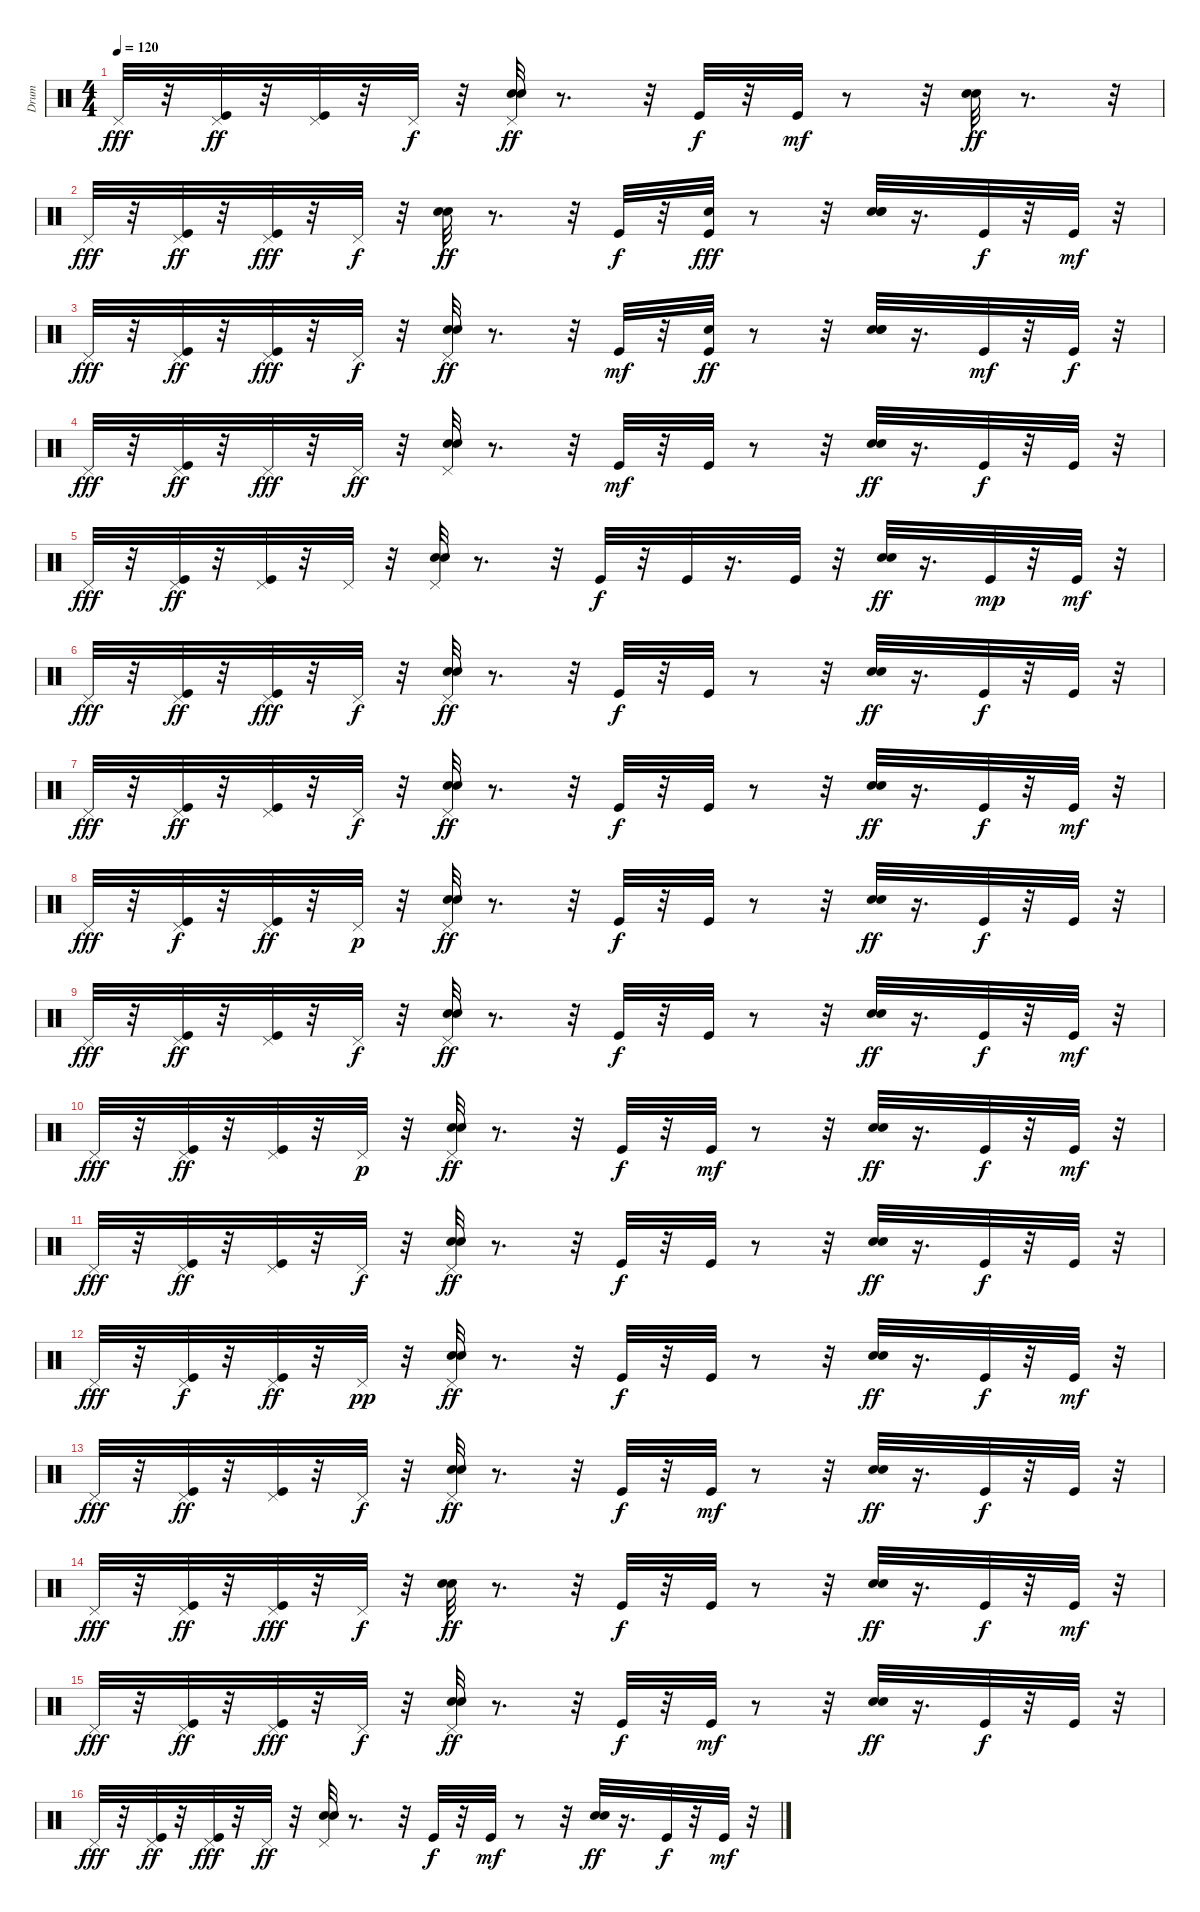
\track ("Drum" "Drum") {instrument percussion}
\staff {score}
\articulation defaults
\ts (4 4)
\tempo 120
\clef neutral
\ks c "Pedal Hi-Hat (hit)".32{dy fff}
r.32 ("Kick (hit)" "Pedal Hi-Hat (hit)").32{dy ff} r.32 ("Kick (hit)" "Pedal Hi-Hat (hit)").32 r.32 "Pedal Hi-Hat (hit)".32{dy f} r.32 ("Snare (hit) 2" "Electric Snare (hit)" "Pedal Hi-Hat (hit)").32{dy ff} r.8{d} r.32 "Kick (hit)".32{dy f} r.32 "Kick (hit)".32{dy mf} r.8 r.32 ("Snare (hit) 2" "Electric Snare (hit)").32{dy ff} r.8{d} r.32 |
"Pedal Hi-Hat (hit)".32{dy fff} r.32 ("Kick (hit)" "Pedal Hi-Hat (hit)").32{dy ff} r.32 ("Kick (hit)" "Pedal Hi-Hat (hit)").32{dy fff} r.32 "Pedal Hi-Hat (hit)".32{dy f} r.32 ("Electric Snare (hit)" "Snare (hit) 2").32{dy ff} r.8{d} r.32 "Kick (hit)".32{dy f} r.32 ("Kick (hit)" "Hand Clap (hit)").32{dy fff} r.8 r.32 ("Electric Snare (hit)" "Snare (hit) 2" "Hand Clap (hit)").32 r.16{d} "Kick (hit)".32{dy f} r.32 "Kick (hit)".32{dy mf} r.32 |
"Pedal Hi-Hat (hit)".32{dy fff} r.32 ("Kick (hit)" "Pedal Hi-Hat (hit)").32{dy ff} r.32 ("Kick (hit)" "Pedal Hi-Hat (hit)").32{dy fff} r.32 "Pedal Hi-Hat (hit)".32{dy f} r.32 ("Electric Snare (hit)" "Snare (hit) 2" "Pedal Hi-Hat (hit)").32{dy ff} r.8{d} r.32 "Kick (hit)".32{dy mf} r.32 ("Hand Clap (hit)" "Kick (hit)").32{dy ff} r.8 r.32 ("Hand Clap (hit)" "Snare (hit) 2" "Electric Snare (hit)").32 r.16{d} "Kick (hit)".32{dy mf} r.32 "Kick (hit)".32{dy f} r.32 |
"Pedal Hi-Hat (hit)".32{dy fff} r.32 ("Kick (hit)" "Pedal Hi-Hat (hit)").32{dy ff} r.32 "Pedal Hi-Hat (hit)".32{dy fff} r.32 "Pedal Hi-Hat (hit)".32{dy ff} r.32 ("Snare (hit) 2" "Electric Snare (hit)" "Pedal Hi-Hat (hit)").32 r.8{d} r.32 "Kick (hit)".32{dy mf} r.32 "Kick (hit)".32 r.8 r.32 ("Snare (hit) 2" "Electric Snare (hit)").32{dy ff} r.16{d} "Kick (hit)".32{dy f} r.32 "Kick (hit)".32 r.32 |
"Pedal Hi-Hat (hit)".32{dy fff} r.32 ("Kick (hit)" "Pedal Hi-Hat (hit)").32{dy ff} r.32 ("Kick (hit)" "Pedal Hi-Hat (hit)").32 r.32 "Pedal Hi-Hat (hit)".32 r.32 ("Snare (hit) 2" "Electric Snare (hit)" "Pedal Hi-Hat (hit)").32 r.8{d} r.32 "Kick (hit)".32{dy f} r.32 "Kick (hit)".32 r.16{d} "Kick (hit)".32 r.32 ("Snare (hit) 2" "Electric Snare (hit)").32{dy ff} r.16{d} "Kick (hit)".32{dy mp} r.32 "Kick (hit)".32{dy mf} r.32 |
"Pedal Hi-Hat (hit)".32{dy fff} r.32 ("Kick (hit)" "Pedal Hi-Hat (hit)").32{dy ff} r.32 ("Kick (hit)" "Pedal Hi-Hat (hit)").32{dy fff} r.32 "Pedal Hi-Hat (hit)".32{dy f} r.32 ("Snare (hit) 2" "Electric Snare (hit)" "Pedal Hi-Hat (hit)").32{dy ff} r.8{d} r.32 "Kick (hit)".32{dy f} r.32 "Kick (hit)".32 r.8 r.32 ("Snare (hit) 2" "Electric Snare (hit)").32{dy ff} r.16{d} "Kick (hit)".32{dy f} r.32 "Kick (hit)".32 r.32 |
"Pedal Hi-Hat (hit)".32{dy fff} r.32 ("Kick (hit)" "Pedal Hi-Hat (hit)").32{dy ff} r.32 ("Kick (hit)" "Pedal Hi-Hat (hit)").32 r.32 "Pedal Hi-Hat (hit)".32{dy f} r.32 ("Snare (hit) 2" "Electric Snare (hit)" "Pedal Hi-Hat (hit)").32{dy ff} r.8{d} r.32 "Kick (hit)".32{dy f} r.32 "Kick (hit)".32 r.8 r.32 ("Snare (hit) 2" "Electric Snare (hit)").32{dy ff} r.16{d} "Kick (hit)".32{dy f} r.32 "Kick (hit)".32{dy mf} r.32 |
"Pedal Hi-Hat (hit)".32{dy fff} r.32 ("Pedal Hi-Hat (hit)" "Kick (hit)").32{dy f} r.32 ("Kick (hit)" "Pedal Hi-Hat (hit)").32{dy ff} r.32 "Pedal Hi-Hat (hit)".32{dy p} r.32 ("Pedal Hi-Hat (hit)" "Snare (hit) 2" "Electric Snare (hit)").32{dy ff} r.8{d} r.32 "Kick (hit)".32{dy f} r.32 "Kick (hit)".32 r.8 r.32 ("Snare (hit) 2" "Electric Snare (hit)").32{dy ff} r.16{d} "Kick (hit)".32{dy f} r.32 "Kick (hit)".32 r.32 |
"Pedal Hi-Hat (hit)".32{dy fff} r.32 ("Kick (hit)" "Pedal Hi-Hat (hit)").32{dy ff} r.32 ("Kick (hit)" "Pedal Hi-Hat (hit)").32 r.32 "Pedal Hi-Hat (hit)".32{dy f} r.32 ("Snare (hit) 2" "Electric Snare (hit)" "Pedal Hi-Hat (hit)").32{dy ff} r.8{d} r.32 "Kick (hit)".32{dy f} r.32 "Kick (hit)".32 r.8 r.32 ("Electric Snare (hit)" "Snare (hit) 2").32{dy ff} r.16{d} "Kick (hit)".32{dy f} r.32 "Kick (hit)".32{dy mf} r.32 |
"Pedal Hi-Hat (hit)".32{dy fff} r.32 ("Kick (hit)" "Pedal Hi-Hat (hit)").32{dy ff} r.32 ("Kick (hit)" "Pedal Hi-Hat (hit)").32 r.32 "Pedal Hi-Hat (hit)".32{dy p} r.32 ("Snare (hit) 2" "Electric Snare (hit)" "Pedal Hi-Hat (hit)").32{dy ff} r.8{d} r.32 "Kick (hit)".32{dy f} r.32 "Kick (hit)".32{dy mf} r.8 r.32 ("Snare (hit) 2" "Electric Snare (hit)").32{dy ff} r.16{d} "Kick (hit)".32{dy f} r.32 "Kick (hit)".32{dy mf} r.32 |
"Pedal Hi-Hat (hit)".32{dy fff} r.32 ("Pedal Hi-Hat (hit)" "Kick (hit)").32{dy ff} r.32 ("Kick (hit)" "Pedal Hi-Hat (hit)").32 r.32 "Pedal Hi-Hat (hit)".32{dy f} r.32 ("Snare (hit) 2" "Electric Snare (hit)" "Pedal Hi-Hat (hit)").32{dy ff} r.8{d} r.32 "Kick (hit)".32{dy f} r.32 "Kick (hit)".32 r.8 r.32 ("Snare (hit) 2" "Electric Snare (hit)").32{dy ff} r.16{d} "Kick (hit)".32{dy f} r.32 "Kick (hit)".32 r.32 |
"Pedal Hi-Hat (hit)".32{dy fff} r.32 ("Kick (hit)" "Pedal Hi-Hat (hit)").32{dy f} r.32 ("Kick (hit)" "Pedal Hi-Hat (hit)").32{dy ff} r.32 "Pedal Hi-Hat (hit)".32{dy pp} r.32 ("Snare (hit) 2" "Electric Snare (hit)" "Pedal Hi-Hat (hit)").32{dy ff} r.8{d} r.32 "Kick (hit)".32{dy f} r.32 "Kick (hit)".32 r.8 r.32 ("Electric Snare (hit)" "Snare (hit) 2").32{dy ff} r.16{d} "Kick (hit)".32{dy f} r.32 "Kick (hit)".32{dy mf} r.32 |
"Pedal Hi-Hat (hit)".32{dy fff} r.32 ("Kick (hit)" "Pedal Hi-Hat (hit)").32{dy ff} r.32 ("Kick (hit)" "Pedal Hi-Hat (hit)").32 r.32 "Pedal Hi-Hat (hit)".32{dy f} r.32 ("Snare (hit) 2" "Electric Snare (hit)" "Pedal Hi-Hat (hit)").32{dy ff} r.8{d} r.32 "Kick (hit)".32{dy f} r.32 "Kick (hit)".32{dy mf} r.8 r.32 ("Snare (hit) 2" "Electric Snare (hit)").32{dy ff} r.16{d} "Kick (hit)".32{dy f} r.32 "Kick (hit)".32 r.32 |
"Pedal Hi-Hat (hit)".32{dy fff} r.32 ("Kick (hit)" "Pedal Hi-Hat (hit)").32{dy ff} r.32 ("Kick (hit)" "Pedal Hi-Hat (hit)").32{dy fff} r.32 "Pedal Hi-Hat (hit)".32{dy f} r.32 ("Snare (hit) 2" "Electric Snare (hit)").32{dy ff} r.8{d} r.32 "Kick (hit)".32{dy f} r.32 "Kick (hit)".32 r.8 r.32 ("Snare (hit) 2" "Electric Snare (hit)").32{dy ff} r.16{d} "Kick (hit)".32{dy f} r.32 "Kick (hit)".32{dy mf} r.32 |
"Pedal Hi-Hat (hit)".32{dy fff} r.32 ("Kick (hit)" "Pedal Hi-Hat (hit)").32{dy ff} r.32 ("Kick (hit)" "Pedal Hi-Hat (hit)").32{dy fff} r.32 "Pedal Hi-Hat (hit)".32{dy f} r.32 ("Snare (hit) 2" "Electric Snare (hit)" "Pedal Hi-Hat (hit)").32{dy ff} r.8{d} r.32 "Kick (hit)".32{dy f} r.32 "Kick (hit)".32{dy mf} r.8 r.32 ("Snare (hit) 2" "Electric Snare (hit)").32{dy ff} r.16{d} "Kick (hit)".32{dy f} r.32 "Kick (hit)".32 r.32 |
"Pedal Hi-Hat (hit)".32{dy fff} r.32 ("Kick (hit)" "Pedal Hi-Hat (hit)").32{dy ff} r.32 ("Kick (hit)" "Pedal Hi-Hat (hit)").32{dy fff} r.32 "Pedal Hi-Hat (hit)".32{dy ff} r.32 ("Snare (hit) 2" "Electric Snare (hit)" "Pedal Hi-Hat (hit)").32 r.8{d} r.32 "Kick (hit)".32{dy f} r.32 "Kick (hit)".32{dy mf} r.8 r.32 ("Snare (hit) 2" "Electric Snare (hit)").32{dy ff} r.16{d} "Kick (hit)".32{dy f} r.32 "Kick (hit)".32{dy mf} r.32
